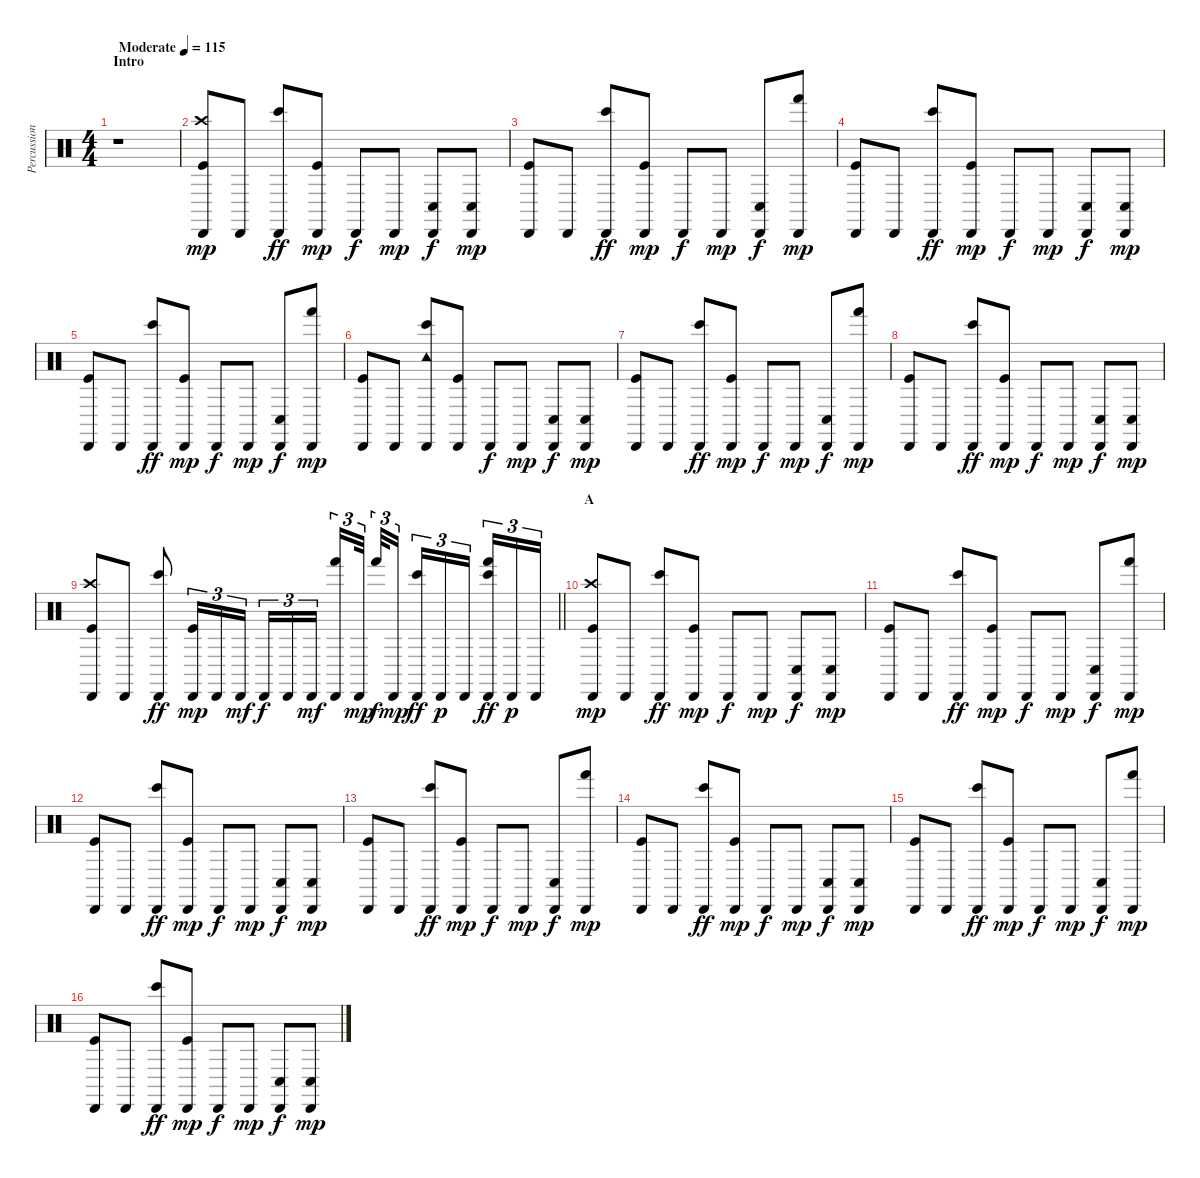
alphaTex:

\track ("Percussions" "Percussion") {instrument percussion}
\staff {score}
\articulation defaults
\ts (4 4)
\section ("" "Intro")
\tempo (115 "Moderate")
\clef neutral
\ks c
r.1{dy mp} |
("Cabasa (hit)" "Crash high (hit)" "Kick (hit)").8 "Cabasa (hit)".8 ("Cabasa (hit)" "Bongo High (hit)").8{dy ff} ("Cabasa (hit)" "Kick (hit)").8{dy mp} "Cabasa (hit)".8{dy f} "Cabasa (hit)".8{dy mp} ("Cabasa (hit)" "Conga low (hit)").8{dy f} ("Cabasa (hit)" "Conga low (hit)").8{dy mp} |
("Cabasa (hit)" "Kick (hit)").8 "Cabasa (hit)".8 ("Cabasa (hit)" "Bongo High (hit)").8{dy ff} ("Cabasa (hit)" "Kick (hit)").8{dy mp} "Cabasa (hit)".8{dy f} "Cabasa (hit)".8{dy mp} ("Cabasa (hit)" "Conga low (hit)").8{dy f} ("Cabasa (hit)" "Hand (hit)").8{dy mp} |
("Cabasa (hit)" "Kick (hit)").8 "Cabasa (hit)".8 ("Cabasa (hit)" "Bongo High (hit)").8{dy ff} ("Cabasa (hit)" "Kick (hit)").8{dy mp} "Cabasa (hit)".8{dy f} "Cabasa (hit)".8{dy mp} ("Cabasa (hit)" "Conga low (hit)").8{dy f} ("Cabasa (hit)" "Conga low (hit)").8{dy mp} |
("Cabasa (hit)" "Kick (hit)").8 "Cabasa (hit)".8 ("Cabasa (hit)" "Bongo High (hit)").8{dy ff} ("Cabasa (hit)" "Kick (hit)").8{dy mp} "Cabasa (hit)".8{dy f} "Cabasa (hit)".8{dy mp} ("Cabasa (hit)" "Conga low (hit)").8{dy f} ("Cabasa (hit)" "Hand (hit)").8{dy mp} |
("Cabasa (hit)" "Kick (hit)").8 "Cabasa (hit)".8 ("Cabasa (hit)" "Bongo High (hit)" "Tambourine (hit)").8 ("Cabasa (hit)" "Kick (hit)").8 "Cabasa (hit)".8{dy f} "Cabasa (hit)".8{dy mp} ("Cabasa (hit)" "Conga low (hit)").8{dy f} ("Cabasa (hit)" "Conga low (hit)").8{dy mp} |
("Cabasa (hit)" "Kick (hit)").8 "Cabasa (hit)".8 ("Cabasa (hit)" "Bongo High (hit)").8{dy ff} ("Cabasa (hit)" "Kick (hit)").8{dy mp} "Cabasa (hit)".8{dy f} "Cabasa (hit)".8{dy mp} ("Cabasa (hit)" "Conga low (hit)").8{dy f} ("Cabasa (hit)" "Hand (hit)").8{dy mp} |
("Cabasa (hit)" "Kick (hit)").8 "Cabasa (hit)".8 ("Cabasa (hit)" "Bongo High (hit)").8{dy ff} ("Cabasa (hit)" "Kick (hit)").8{dy mp} "Cabasa (hit)".8{dy f} "Cabasa (hit)".8{dy mp} ("Cabasa (hit)" "Conga low (hit)").8{dy f} ("Cabasa (hit)" "Conga low (hit)").8{dy mp} |
\barLineRight lightlight
("Cabasa (hit)" "Crash high (hit)" "Kick (hit)").8 "Cabasa (hit)".8 ("Cabasa (hit)" "Bongo High (hit)").8{dy ff} ("Cabasa (hit)" "Kick (hit)").16{tu (3 2) dy mp} "Cabasa (hit)".16{tu (3 2)} "Cabasa (hit)".16{tu (3 2) dy mf} "Cabasa (hit)".16{tu (3 2) dy f} "Cabasa (hit)".16{tu (3 2)} "Cabasa (hit)".16{tu (3 2) dy mf beam splitsecondary} ("Cabasa (hit)" "Hand (hit)").16{tu (3 2)} "Cabasa (hit)".32{tu (3 2) dy mp beam splitsecondary} "Hand (hit)".32{tu (3 2) dy f} "Cabasa (hit)".16{tu (3 2) dy mp} ("Cabasa (hit)" "Bongo High (hit)").16{tu (3 2) dy ff} "Cabasa (hit)".16{tu (3 2) dy p} "Cabasa (hit)".16{tu (3 2) beam splitsecondary} ("Cabasa (hit)" "Bongo High (hit)" "Hand (hit)").16{tu (3 2) dy ff} "Cabasa (hit)".16{tu (3 2) dy p} "Cabasa (hit)".16{tu (3 2)} |
\section ("" "A")
("Cabasa (hit)" "Crash high (hit)" "Kick (hit)").8{dy mp} "Cabasa (hit)".8 ("Cabasa (hit)" "Bongo High (hit)").8{dy ff} ("Cabasa (hit)" "Kick (hit)").8{dy mp} "Cabasa (hit)".8{dy f} "Cabasa (hit)".8{dy mp} ("Cabasa (hit)" "Conga low (hit)").8{dy f} ("Cabasa (hit)" "Conga low (hit)").8{dy mp} |
("Cabasa (hit)" "Kick (hit)").8 "Cabasa (hit)".8 ("Cabasa (hit)" "Bongo High (hit)").8{dy ff} ("Cabasa (hit)" "Kick (hit)").8{dy mp} "Cabasa (hit)".8{dy f} "Cabasa (hit)".8{dy mp} ("Cabasa (hit)" "Conga low (hit)").8{dy f} ("Cabasa (hit)" "Hand (hit)").8{dy mp} |
("Cabasa (hit)" "Kick (hit)").8 "Cabasa (hit)".8 ("Cabasa (hit)" "Bongo High (hit)").8{dy ff} ("Cabasa (hit)" "Kick (hit)").8{dy mp} "Cabasa (hit)".8{dy f} "Cabasa (hit)".8{dy mp} ("Cabasa (hit)" "Conga low (hit)").8{dy f} ("Cabasa (hit)" "Conga low (hit)").8{dy mp} |
("Cabasa (hit)" "Kick (hit)").8 "Cabasa (hit)".8 ("Cabasa (hit)" "Bongo High (hit)").8{dy ff} ("Cabasa (hit)" "Kick (hit)").8{dy mp} "Cabasa (hit)".8{dy f} "Cabasa (hit)".8{dy mp} ("Cabasa (hit)" "Conga low (hit)").8{dy f} ("Cabasa (hit)" "Hand (hit)").8{dy mp} |
("Cabasa (hit)" "Kick (hit)").8 "Cabasa (hit)".8 ("Cabasa (hit)" "Bongo High (hit)").8{dy ff} ("Cabasa (hit)" "Kick (hit)").8{dy mp} "Cabasa (hit)".8{dy f} "Cabasa (hit)".8{dy mp} ("Cabasa (hit)" "Conga low (hit)").8{dy f} ("Cabasa (hit)" "Conga low (hit)").8{dy mp} |
("Cabasa (hit)" "Kick (hit)").8 "Cabasa (hit)".8 ("Cabasa (hit)" "Bongo High (hit)").8{dy ff} ("Cabasa (hit)" "Kick (hit)").8{dy mp} "Cabasa (hit)".8{dy f} "Cabasa (hit)".8{dy mp} ("Cabasa (hit)" "Conga low (hit)").8{dy f} ("Cabasa (hit)" "Hand (hit)").8{dy mp} |
("Cabasa (hit)" "Kick (hit)").8 "Cabasa (hit)".8 ("Cabasa (hit)" "Bongo High (hit)").8{dy ff} ("Cabasa (hit)" "Kick (hit)").8{dy mp} "Cabasa (hit)".8{dy f} "Cabasa (hit)".8{dy mp} ("Cabasa (hit)" "Conga low (hit)").8{dy f} ("Cabasa (hit)" "Conga low (hit)").8{dy mp}
